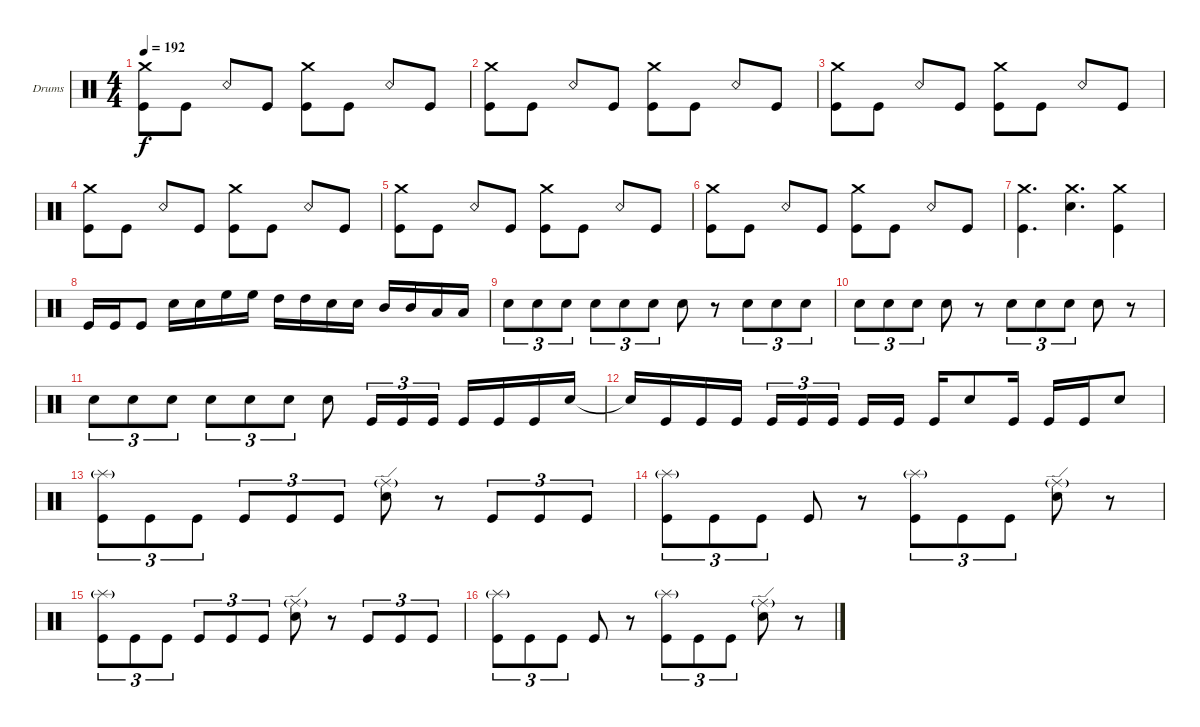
\defaultSystemsLayout 4
\bracketExtendMode groupsimilarinstruments
\firstSystemTrackNameOrientation horizontal
\otherSystemsTrackNameOrientation horizontal
\track ("Drumkit" "Drums") {instrument percussion}
\staff {score}
\articulation defaults
\ts (4 4)
\tempo 192
\clef neutral
\ks c
("Crash medium (hit)" "Kick (hit)").8{dy f} "Kick (hit)".8 "Snare (rim shot)".8 "Kick (hit)".8 ("Kick (hit)" "Crash medium (hit)").8 "Kick (hit)".8 "Snare (rim shot)".8 "Kick (hit)".8 |
("Crash medium (hit)" "Kick (hit)").8 "Kick (hit)".8 "Snare (rim shot)".8 "Kick (hit)".8 ("Kick (hit)" "Crash medium (hit)").8 "Kick (hit)".8 "Snare (rim shot)".8 "Kick (hit)".8 |
("Crash medium (hit)" "Kick (hit)").8 "Kick (hit)".8 "Snare (rim shot)".8 "Kick (hit)".8 ("Kick (hit)" "Crash medium (hit)").8 "Kick (hit)".8 "Snare (rim shot)".8 "Kick (hit)".8 |
("Crash medium (hit)" "Kick (hit)").8 "Kick (hit)".8 "Snare (rim shot)".8 "Kick (hit)".8 ("Kick (hit)" "Crash medium (hit)").8 "Kick (hit)".8 "Snare (rim shot)".8 "Kick (hit)".8 |
("Crash medium (hit)" "Kick (hit)").8 "Kick (hit)".8 "Snare (rim shot)".8 "Kick (hit)".8 ("Kick (hit)" "Crash medium (hit)").8 "Kick (hit)".8 "Snare (rim shot)".8 "Kick (hit)".8 |
("Crash medium (hit)" "Kick (hit)").8 "Kick (hit)".8 "Snare (rim shot)".8 "Kick (hit)".8 ("Kick (hit)" "Crash medium (hit)").8 "Kick (hit)".8 "Snare (rim shot)".8 "Kick (hit)".8 |
("Crash medium (hit)" "Kick (hit)").4{d} ("Crash medium (hit)" "Snare (hit) 2").4{d} ("Crash medium (hit)" "Kick (hit)").4 |
"Kick (hit)".16 "Kick (hit)".16 "Kick (hit)".8 "Snare (hit) 2".16 "Snare (hit) 2".16 "High Floor Tom (hit)".16 "High Floor Tom (hit)".16 "High Tom (hit)".16 "High Tom (hit)".16 "Snare (hit) 2".16 "Snare (hit) 2".16 "Mid Tom (hit)".16 "Mid Tom (hit)".16 "Low Tom (hit)".16 "Low Tom (hit)".16 |
"Snare (hit) 2".8{tu (3 2)} "Snare (hit) 2".8{tu (3 2)} "Snare (hit) 2".8{tu (3 2)} "Snare (hit) 2".8{tu (3 2)} "Snare (hit) 2".8{tu (3 2)} "Snare (hit) 2".8{tu (3 2)} "Snare (hit) 2".8 r.8 "Snare (hit) 2".8{tu (3 2)} "Snare (hit) 2".8{tu (3 2)} "Snare (hit) 2".8{tu (3 2)} |
"Snare (hit) 2".8{tu (3 2)} "Snare (hit) 2".8{tu (3 2)} "Snare (hit) 2".8{tu (3 2)} "Snare (hit) 2".8 r.8 "Snare (hit) 2".8{tu (3 2)} "Snare (hit) 2".8{tu (3 2)} "Snare (hit) 2".8{tu (3 2)} "Snare (hit) 2".8 r.8 |
"Snare (hit) 2".8{tu (3 2)} "Snare (hit) 2".8{tu (3 2)} "Snare (hit) 2".8{tu (3 2)} "Snare (hit) 2".8{tu (3 2)} "Snare (hit) 2".8{tu (3 2)} "Snare (hit) 2".8{tu (3 2)} "Snare (hit) 2".8 "Kick (hit)".16{tu (3 2)} "Kick (hit)".16{tu (3 2)} "Kick (hit)".16{tu (3 2)} "Kick (hit)".16 "Kick (hit)".16 "Kick (hit)".16 "Snare (hit) 2".16 |
"Snare (hit) 2"{t}.16 "Kick (hit)".16 "Kick (hit)".16 "Kick (hit)".16 "Kick (hit)".16{tu (3 2)} "Kick (hit)".16{tu (3 2)} "Kick (hit)".16{tu (3 2)} "Kick (hit)".16 "Kick (hit)".16 "Kick (hit)".16 "Snare (hit) 2".8 "Kick (hit)".16 "Kick (hit)".16 "Kick (hit)".16 "Snare (hit) 2".8 |
("Kick (hit)" "Splash (hit)"{g}).8{tu (3 2)} "Kick (hit)".8{tu (3 2)} "Kick (hit)".8{tu (3 2)} "Kick (hit)".8{tu (3 2)} "Kick (hit)".8{tu (3 2)} "Kick (hit)".8{tu (3 2)} ("Snare (hit) 2" "Ride (edge)"{g}).8 r.8 "Kick (hit)".8{tu (3 2)} "Kick (hit)".8{tu (3 2)} "Kick (hit)".8{tu (3 2)} |
("Splash (hit)"{g} "Kick (hit)").8{tu (3 2)} "Kick (hit)".8{tu (3 2)} "Kick (hit)".8{tu (3 2)} "Kick (hit)".8 r.8 ("Kick (hit)" "Splash (hit)"{g}).8{tu (3 2)} "Kick (hit)".8{tu (3 2)} "Kick (hit)".8{tu (3 2)} ("Snare (hit) 2" "Ride (edge)"{g}).8 r.8 |
("Kick (hit)" "Splash (hit)"{g}).8{tu (3 2)} "Kick (hit)".8{tu (3 2)} "Kick (hit)".8{tu (3 2)} "Kick (hit)".8{tu (3 2)} "Kick (hit)".8{tu (3 2)} "Kick (hit)".8{tu (3 2)} ("Snare (hit) 2" "Ride (edge)"{g}).8 r.8 "Kick (hit)".8{tu (3 2)} "Kick (hit)".8{tu (3 2)} "Kick (hit)".8{tu (3 2)} |
("Splash (hit)"{g} "Kick (hit)").8{tu (3 2)} "Kick (hit)".8{tu (3 2)} "Kick (hit)".8{tu (3 2)} "Kick (hit)".8 r.8 ("Kick (hit)" "Splash (hit)"{g}).8{tu (3 2)} "Kick (hit)".8{tu (3 2)} "Kick (hit)".8{tu (3 2)} ("Snare (hit) 2" "Ride (edge)"{g}).8 r.8
